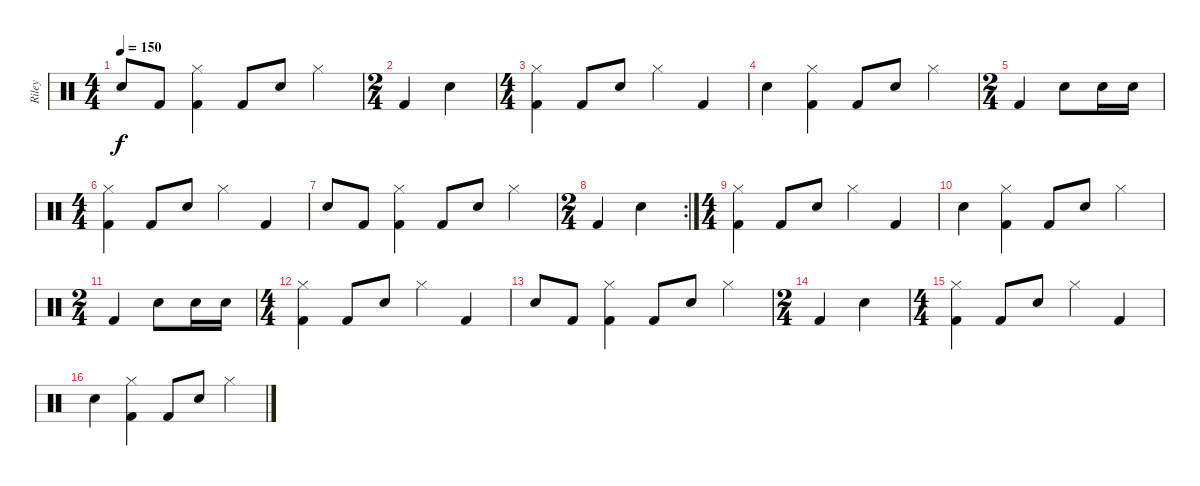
\track ("Riley" "Riley") {instrument percussion}
\staff {score}
\articulation defaults
\ts (4 4)
\tempo 150
\clef neutral
\ks c "Electric Snare (hit)".8{dy f} "Kick (hit) 2".8
("Hi-Hat (closed)" "Kick (hit) 2").4 "Kick (hit) 2".8 "Electric Snare (hit)".8 "Hi-Hat (closed)".4 |
\ts (2 4)
"Kick (hit) 2".4 "Electric Snare (hit)".4 |
\ts (4 4)
("Hi-Hat (closed)" "Kick (hit) 2").4 "Kick (hit) 2".8 "Electric Snare (hit)".8 "Hi-Hat (closed)".4 "Kick (hit) 2".4 |
"Electric Snare (hit)".4 ("Hi-Hat (closed)" "Kick (hit) 2").4 "Kick (hit) 2".8 "Electric Snare (hit)".8 "Hi-Hat (closed)".4 |
\ts (2 4)
"Kick (hit) 2".4 "Electric Snare (hit)".8 "Electric Snare (hit)".16 "Electric Snare (hit)".16 |
\ts (4 4)
("Hi-Hat (closed)" "Kick (hit) 2").4 "Kick (hit) 2".8 "Electric Snare (hit)".8 "Hi-Hat (closed)".4 "Kick (hit) 2".4 |
"Electric Snare (hit)".8 "Kick (hit) 2".8 ("Hi-Hat (closed)" "Kick (hit) 2").4 "Kick (hit) 2".8 "Electric Snare (hit)".8 "Hi-Hat (closed)".4 |
\rc 2
\ts (2 4)
"Kick (hit) 2".4 "Electric Snare (hit)".4 |
\ts (4 4)
("Hi-Hat (closed)" "Kick (hit) 2").4 "Kick (hit) 2".8 "Electric Snare (hit)".8 "Hi-Hat (closed)".4 "Kick (hit) 2".4 |
"Electric Snare (hit)".4 ("Hi-Hat (closed)" "Kick (hit) 2").4 "Kick (hit) 2".8 "Electric Snare (hit)".8 "Hi-Hat (closed)".4 |
\ts (2 4)
"Kick (hit) 2".4 "Electric Snare (hit)".8 "Electric Snare (hit)".16 "Electric Snare (hit)".16 |
\ts (4 4)
("Hi-Hat (closed)" "Kick (hit) 2").4 "Kick (hit) 2".8 "Electric Snare (hit)".8 "Hi-Hat (closed)".4 "Kick (hit) 2".4 |
"Electric Snare (hit)".8 "Kick (hit) 2".8 ("Hi-Hat (closed)" "Kick (hit) 2").4 "Kick (hit) 2".8 "Electric Snare (hit)".8 "Hi-Hat (closed)".4 |
\ts (2 4)
"Kick (hit) 2".4 "Electric Snare (hit)".4 |
\ts (4 4)
("Hi-Hat (closed)" "Kick (hit) 2").4 "Kick (hit) 2".8 "Electric Snare (hit)".8 "Hi-Hat (closed)".4 "Kick (hit) 2".4 |
"Electric Snare (hit)".4 ("Hi-Hat (closed)" "Kick (hit) 2").4 "Kick (hit) 2".8 "Electric Snare (hit)".8 "Hi-Hat (closed)".4
